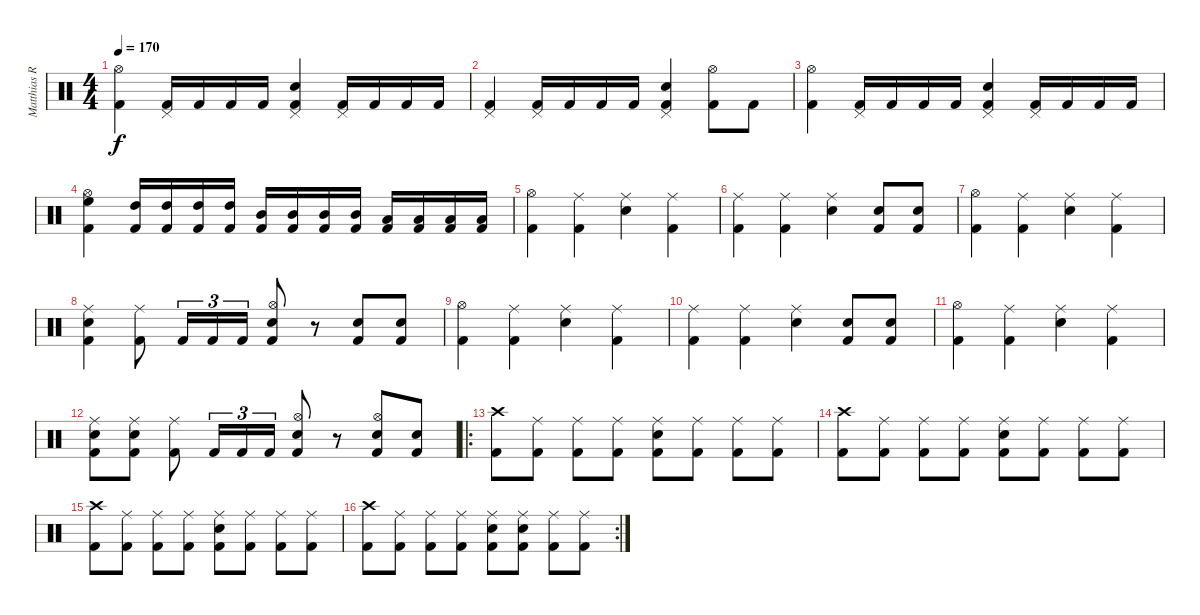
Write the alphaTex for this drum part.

\track ("Matthias R." "Matthias R") {instrument percussion}
\staff {score}
\articulation defaults
\ts (4 4)
\tempo 170
\clef neutral
\ks c
("Kick (hit) 2" "Hi-Hat (open)").4{dy f} ("Kick (hit) 2" "Pedal Hi-Hat (hit)").16 "Kick (hit) 2".16 "Kick (hit) 2".16 "Kick (hit) 2".16 ("Kick (hit) 2" "Snare (hit) 2" "Pedal Hi-Hat (hit)").4 ("Kick (hit) 2" "Pedal Hi-Hat (hit)").16 "Kick (hit) 2".16 "Kick (hit) 2".16 "Kick (hit) 2".16 |
("Kick (hit) 2" "Pedal Hi-Hat (hit)").4 ("Kick (hit) 2" "Pedal Hi-Hat (hit)").16 "Kick (hit) 2".16 "Kick (hit) 2".16 "Kick (hit) 2".16 ("Kick (hit) 2" "Snare (hit) 2" "Pedal Hi-Hat (hit)").4 ("Kick (hit) 2" "Hi-Hat (open)").8 "Kick (hit) 2".8 |
("Kick (hit) 2" "Hi-Hat (open)").4 ("Kick (hit) 2" "Pedal Hi-Hat (hit)").16 "Kick (hit) 2".16 "Kick (hit) 2".16 "Kick (hit) 2".16 ("Kick (hit) 2" "Snare (hit) 2" "Pedal Hi-Hat (hit)").4 ("Kick (hit) 2" "Pedal Hi-Hat (hit)").16 "Kick (hit) 2".16 "Kick (hit) 2".16 "Kick (hit) 2".16 |
("High Floor Tom (hit)" "Kick (hit) 2" "Hi-Hat (open)").4 ("High Tom (hit)" "Kick (hit) 2").16 ("High Tom (hit)" "Kick (hit) 2").16 ("High Tom (hit)" "Kick (hit) 2").16 ("High Tom (hit)" "Kick (hit) 2").16 ("Mid Tom (hit)" "Kick (hit) 2").16 ("Mid Tom (hit)" "Kick (hit) 2").16 ("Mid Tom (hit)" "Kick (hit) 2").16 ("Mid Tom (hit)" "Kick (hit) 2").16 ("Low Tom (hit)" "Kick (hit) 2").16 ("Low Tom (hit)" "Kick (hit) 2").16 ("Low Tom (hit)" "Kick (hit) 2").16 ("Low Tom (hit)" "Kick (hit) 2").16 |
("Kick (hit) 2" "Hi-Hat (open)").4 ("Kick (hit) 2" "Ride (middle)").4 ("Snare (hit) 2" "Ride (middle)").4 ("Kick (hit) 2" "Ride (middle)").4 |
("Kick (hit) 2" "Ride (middle)").4 ("Kick (hit) 2" "Ride (middle)").4 ("Snare (hit) 2" "Ride (middle)").4 ("Kick (hit) 2" "Snare (hit) 2").8 ("Kick (hit) 2" "Snare (hit) 2").8 |
("Kick (hit) 2" "Hi-Hat (open)").4 ("Kick (hit) 2" "Ride (middle)").4 ("Snare (hit) 2" "Ride (middle)").4 ("Kick (hit) 2" "Ride (middle)").4 |
("Kick (hit) 2" "Snare (hit) 2" "Ride (middle)").4 ("Kick (hit) 2" "Ride (middle)").8 "Kick (hit) 2".16{tu (3 2)} "Kick (hit) 2".16{tu (3 2)} "Kick (hit) 2".16{tu (3 2)} ("Kick (hit) 2" "Snare (hit) 2" "Hi-Hat (open)").8 r.8 ("Kick (hit) 2" "Snare (hit) 2").8 ("Kick (hit) 2" "Snare (hit) 2").8 |
("Kick (hit) 2" "Hi-Hat (open)").4 ("Kick (hit) 2" "Ride (middle)").4 ("Snare (hit) 2" "Ride (middle)").4 ("Kick (hit) 2" "Ride (middle)").4 |
("Kick (hit) 2" "Ride (middle)").4 ("Kick (hit) 2" "Ride (middle)").4 ("Snare (hit) 2" "Ride (middle)").4 ("Kick (hit) 2" "Snare (hit) 2").8 ("Kick (hit) 2" "Snare (hit) 2").8 |
("Kick (hit) 2" "Hi-Hat (open)").4 ("Kick (hit) 2" "Ride (middle)").4 ("Snare (hit) 2" "Ride (middle)").4 ("Kick (hit) 2" "Ride (middle)").4 |
("Kick (hit) 2" "Snare (hit) 2" "Ride (middle)").8 ("Kick (hit) 2" "Snare (hit) 2" "Ride (middle)").8 ("Kick (hit) 2" "Ride (middle)").8 "Kick (hit) 2".16{tu (3 2)} "Kick (hit) 2".16{tu (3 2)} "Kick (hit) 2".16{tu (3 2)} ("Kick (hit) 2" "Snare (hit) 2" "Hi-Hat (open)").8 r.8 ("Kick (hit) 2" "Snare (hit) 2" "Hi-Hat (open)").8 ("Kick (hit) 2" "Snare (hit) 2").8 |
\ro
("Kick (hit) 2" "Crash high (hit)").8 ("Kick (hit) 2" "Ride (middle)").8 ("Kick (hit) 2" "Ride (middle)").8 ("Kick (hit) 2" "Ride (middle)").8 ("Kick (hit) 2" "Snare (hit) 2" "Ride (middle)").8 ("Kick (hit) 2" "Ride (middle)").8 ("Kick (hit) 2" "Ride (middle)").8 ("Kick (hit) 2" "Ride (middle)").8 |
("Kick (hit) 2" "Crash high (hit)").8 ("Kick (hit) 2" "Ride (middle)").8 ("Kick (hit) 2" "Ride (middle)").8 ("Kick (hit) 2" "Ride (middle)").8 ("Kick (hit) 2" "Snare (hit) 2" "Ride (middle)").8 ("Kick (hit) 2" "Ride (middle)").8 ("Kick (hit) 2" "Ride (middle)").8 ("Kick (hit) 2" "Ride (middle)").8 |
("Kick (hit) 2" "Crash high (hit)").8 ("Kick (hit) 2" "Ride (middle)").8 ("Kick (hit) 2" "Ride (middle)").8 ("Kick (hit) 2" "Ride (middle)").8 ("Kick (hit) 2" "Snare (hit) 2" "Ride (middle)").8 ("Kick (hit) 2" "Ride (middle)").8 ("Kick (hit) 2" "Ride (middle)").8 ("Kick (hit) 2" "Ride (middle)").8 |
\rc 2
("Kick (hit) 2" "Crash high (hit)").8 ("Kick (hit) 2" "Ride (middle)").8 ("Kick (hit) 2" "Ride (middle)").8 ("Kick (hit) 2" "Ride (middle)").8 ("Kick (hit) 2" "Snare (hit) 2" "Ride (middle)").8 ("Kick (hit) 2" "Snare (hit) 2" "Ride (middle)").8 ("Kick (hit) 2" "Ride (middle)").8 ("Kick (hit) 2" "Ride (middle)").8
